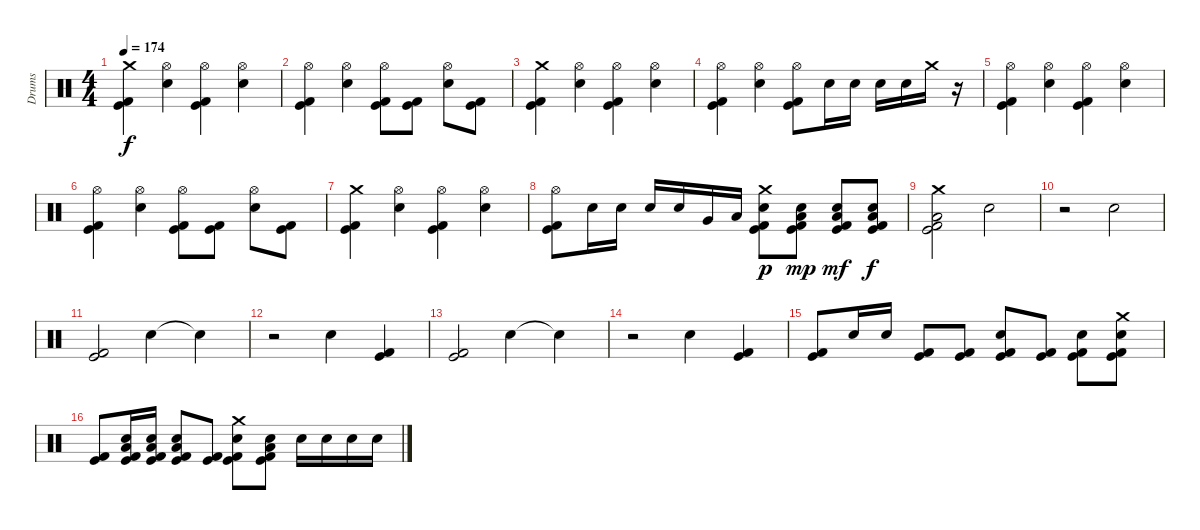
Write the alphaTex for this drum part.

\track ("Drums" "Drums") {instrument percussion}
\staff {score}
\articulation defaults
\ts (4 4)
\tempo 174
\clef neutral
\ks c
("Crash medium (hit)" "Kick (hit) 2" "Kick (hit)").4{dy f} ("Hi-Hat (open)" "Electric Snare (hit)").4 ("Hi-Hat (open)" "Kick (hit) 2" "Kick (hit)").4 ("Hi-Hat (open)" "Electric Snare (hit)").4 |
("Hi-Hat (open)" "Kick (hit) 2" "Kick (hit)").4 ("Hi-Hat (open)" "Electric Snare (hit)").4 ("Hi-Hat (open)" "Kick (hit) 2" "Kick (hit)").8 ("Kick (hit) 2" "Kick (hit)").8 ("Hi-Hat (open)" "Electric Snare (hit)").8 ("Kick (hit) 2" "Kick (hit)").8 |
("Crash medium (hit)" "Kick (hit) 2" "Kick (hit)").4 ("Hi-Hat (open)" "Electric Snare (hit)").4 ("Hi-Hat (open)" "Kick (hit) 2" "Kick (hit)").4 ("Hi-Hat (open)" "Electric Snare (hit)").4 |
("Hi-Hat (open)" "Kick (hit) 2" "Kick (hit)").4 ("Hi-Hat (open)" "Electric Snare (hit)").4 ("Hi-Hat (open)" "Kick (hit) 2" "Kick (hit)").8 "Electric Snare (hit)".16 "Electric Snare (hit)".16 "Electric Snare (hit)".16 "Electric Snare (hit)".16 "Crash medium (hit)".16 r.16 |
("Hi-Hat (open)" "Kick (hit) 2" "Kick (hit)").4 ("Hi-Hat (open)" "Electric Snare (hit)").4 ("Hi-Hat (open)" "Kick (hit) 2" "Kick (hit)").4 ("Hi-Hat (open)" "Electric Snare (hit)").4 |
("Hi-Hat (open)" "Kick (hit) 2" "Kick (hit)").4 ("Hi-Hat (open)" "Electric Snare (hit)").4 ("Hi-Hat (open)" "Kick (hit) 2" "Kick (hit)").8 ("Kick (hit) 2" "Kick (hit)").8 ("Hi-Hat (open)" "Electric Snare (hit)").8 ("Kick (hit) 2" "Kick (hit)").8 |
("Crash medium (hit)" "Kick (hit) 2" "Kick (hit)").4 ("Hi-Hat (open)" "Electric Snare (hit)").4 ("Hi-Hat (open)" "Kick (hit) 2" "Kick (hit)").4 ("Hi-Hat (open)" "Electric Snare (hit)").4 |
("Hi-Hat (open)" "Kick (hit) 2" "Kick (hit)").8 "Electric Snare (hit)".16 "Electric Snare (hit)".16 "Electric Snare (hit)".16 "Electric Snare (hit)".16 "Very Low Tom (hit)".16 "Low Floor Tom (hit)".16 ("Crash medium (hit)" "Electric Snare (hit)" "Kick (hit) 2" "Kick (hit)").8{dy p} ("Electric Snare (hit)" "Low Floor Tom (hit)" "Kick (hit) 2" "Kick (hit)").8{dy mp} ("Electric Snare (hit)" "Low Floor Tom (hit)" "Kick (hit) 2" "Kick (hit)").8{dy mf} ("Electric Snare (hit)" "Low Floor Tom (hit)" "Kick (hit) 2" "Kick (hit)").8{dy f} |
("Crash medium (hit)" "Low Floor Tom (hit)" "Kick (hit) 2" "Kick (hit)").2 "Electric Snare (hit)".2 |
r.2 "Electric Snare (hit)".2 |
("Kick (hit) 2" "Kick (hit)").2 "Electric Snare (hit)".4 "Snare (hit)"{t}.4 |
r.2 "Electric Snare (hit)".4 ("Kick (hit) 2" "Kick (hit)").4 |
("Kick (hit) 2" "Kick (hit)").2 "Electric Snare (hit)".4 "Snare (hit)"{t}.4 |
r.2 "Electric Snare (hit)".4 ("Kick (hit) 2" "Kick (hit)").4 |
("Kick (hit) 2" "Kick (hit)").8 "Electric Snare (hit)".16 "Electric Snare (hit)".16 ("Kick (hit) 2" "Kick (hit)").8 ("Kick (hit) 2" "Kick (hit)").8 ("Electric Snare (hit)" "Kick (hit) 2" "Kick (hit)").8 ("Kick (hit) 2" "Kick (hit)").8 ("Electric Snare (hit)" "Kick (hit) 2" "Kick (hit)").8 ("Crash medium (hit)" "Electric Snare (hit)" "Kick (hit) 2" "Kick (hit)").8 |
("Kick (hit) 2" "Kick (hit)").8 ("Electric Snare (hit)" "Low Floor Tom (hit)" "Kick (hit) 2" "Kick (hit)").16 ("Electric Snare (hit)" "Low Floor Tom (hit)" "Kick (hit) 2" "Kick (hit)").16 ("Electric Snare (hit)" "Low Floor Tom (hit)" "Kick (hit) 2" "Kick (hit)").8 ("Kick (hit) 2" "Kick (hit)").8 ("Crash medium (hit)" "Electric Snare (hit)" "Kick (hit) 2" "Kick (hit)").8 ("Electric Snare (hit)" "Low Floor Tom (hit)" "Kick (hit) 2" "Kick (hit)").8 "Electric Snare (hit)".16 "Electric Snare (hit)".16 "Electric Snare (hit)".16 "Electric Snare (hit)".16
